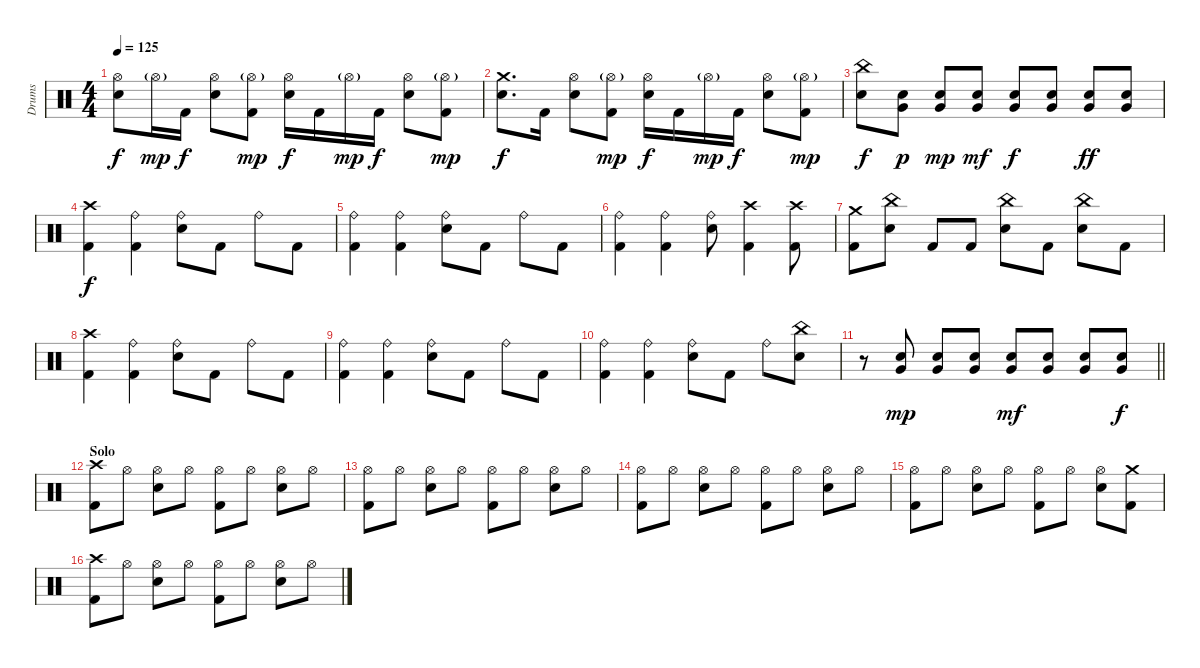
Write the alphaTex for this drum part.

\track ("Drums" "Drums") {instrument percussion}
\staff {score}
\articulation defaults
\ts (4 4)
\tempo 125
\clef neutral
\ks c
("Hi-Hat (open)" "Electric Snare (hit)").8{dy f} "Hi-Hat (open)"{g}.16{dy mp} "Kick (hit) 2".16{dy f} ("Hi-Hat (open)" "Electric Snare (hit)").8 ("Hi-Hat (open)"{g} "Kick (hit) 2").8{dy mp} ("Hi-Hat (open)" "Electric Snare (hit)").16{dy f} "Kick (hit) 2".16 "Hi-Hat (open)"{g}.16{dy mp} "Kick (hit) 2".16{dy f} ("Hi-Hat (open)" "Electric Snare (hit)").8 ("Hi-Hat (open)"{g} "Kick (hit) 2").8{dy mp} |
("Crash medium (hit)" "Electric Snare (hit)").8{d dy f} "Kick (hit) 2".16 ("Hi-Hat (open)" "Electric Snare (hit)").8 ("Hi-Hat (open)"{g} "Kick (hit) 2").8{dy mp} ("Hi-Hat (open)" "Electric Snare (hit)").16{dy f} "Kick (hit) 2".16 "Hi-Hat (open)"{g}.16{dy mp} "Kick (hit) 2".16{dy f} ("Hi-Hat (open)" "Electric Snare (hit)").8 ("Hi-Hat (open)"{g} "Kick (hit) 2").8{dy mp} |
("China (hit)" "Electric Snare (hit)").8{dy f} ("Very Low Tom (hit)" "Electric Snare (hit)").8{dy p} ("Very Low Tom (hit)" "Electric Snare (hit)").8{dy mp} ("Very Low Tom (hit)" "Electric Snare (hit)").8{dy mf} ("Very Low Tom (hit)" "Electric Snare (hit)").8{dy f} ("Very Low Tom (hit)" "Electric Snare (hit)").8 ("Very Low Tom (hit)" "Electric Snare (hit)").8{dy ff} ("Very Low Tom (hit)" "Electric Snare (hit)").8 |
("Crash high (hit)" "Kick (hit) 2").4{dy f} ("Ride (bell)" "Kick (hit) 2").4 ("Ride (bell)" "Electric Snare (hit)").8 "Kick (hit) 2".8 "Ride (bell)".8 "Kick (hit) 2".8 |
("Ride (bell)" "Kick (hit) 2").4 ("Ride (bell)" "Kick (hit) 2").4 ("Ride (bell)" "Electric Snare (hit)").8 "Kick (hit) 2".8 "Ride (bell)".8 "Kick (hit) 2".8 |
("Ride (bell)" "Kick (hit) 2").4 ("Ride (bell)" "Kick (hit) 2").4 ("Ride (bell)" "Electric Snare (hit)").8 ("Crash high (hit)" "Kick (hit) 2").4 ("Crash high (hit)" "Kick (hit) 2").8 |
("Crash medium (hit)" "Kick (hit) 2").8 ("China (hit)" "Electric Snare (hit)").8 "Kick (hit) 2".8 "Kick (hit) 2".8 ("China (hit)" "Electric Snare (hit)").8 "Kick (hit) 2".8 ("China (hit)" "Electric Snare (hit)").8 "Kick (hit) 2".8 |
("Crash high (hit)" "Kick (hit) 2").4 ("Ride (bell)" "Kick (hit) 2").4 ("Ride (bell)" "Electric Snare (hit)").8 "Kick (hit) 2".8 "Ride (bell)".8 "Kick (hit) 2".8 |
("Ride (bell)" "Kick (hit) 2").4 ("Ride (bell)" "Kick (hit) 2").4 ("Ride (bell)" "Electric Snare (hit)").8 "Kick (hit) 2".8 "Ride (bell)".8 "Kick (hit) 2".8 |
("Ride (bell)" "Kick (hit) 2").4 ("Ride (bell)" "Kick (hit) 2").4 ("Ride (bell)" "Electric Snare (hit)").8 "Kick (hit) 2".8 "Ride (bell)".8 ("China (hit)" "Electric Snare (hit)").8 |
\barLineRight lightlight
r.8 ("Very Low Tom (hit)" "Electric Snare (hit)").8{dy mp} ("Very Low Tom (hit)" "Electric Snare (hit)").8 ("Very Low Tom (hit)" "Electric Snare (hit)").8 ("Very Low Tom (hit)" "Electric Snare (hit)").8{dy mf} ("Very Low Tom (hit)" "Electric Snare (hit)").8 ("Very Low Tom (hit)" "Electric Snare (hit)").8 ("Very Low Tom (hit)" "Electric Snare (hit)").8{dy f} |
\section ("" "Solo")
("Crash high (hit)" "Kick (hit) 2").8 "Hi-Hat (open)".8 ("Hi-Hat (open)" "Electric Snare (hit)").8 "Hi-Hat (open)".8 ("Hi-Hat (open)" "Kick (hit) 2").8 "Hi-Hat (open)".8 ("Hi-Hat (open)" "Electric Snare (hit)").8 "Hi-Hat (open)".8 |
("Hi-Hat (open)" "Kick (hit) 2").8 "Hi-Hat (open)".8 ("Hi-Hat (open)" "Electric Snare (hit)").8 "Hi-Hat (open)".8 ("Hi-Hat (open)" "Kick (hit) 2").8 "Hi-Hat (open)".8 ("Hi-Hat (open)" "Electric Snare (hit)").8 "Hi-Hat (open)".8 |
("Hi-Hat (open)" "Kick (hit) 2").8 "Hi-Hat (open)".8 ("Hi-Hat (open)" "Electric Snare (hit)").8 "Hi-Hat (open)".8 ("Hi-Hat (open)" "Kick (hit) 2").8 "Hi-Hat (open)".8 ("Hi-Hat (open)" "Electric Snare (hit)").8 "Hi-Hat (open)".8 |
("Hi-Hat (open)" "Kick (hit) 2").8 "Hi-Hat (open)".8 ("Hi-Hat (open)" "Electric Snare (hit)").8 "Hi-Hat (open)".8 ("Hi-Hat (open)" "Kick (hit) 2").8 "Hi-Hat (open)".8 ("Hi-Hat (open)" "Electric Snare (hit)").8 ("Crash medium (hit)" "Kick (hit) 2").8 |
("Crash high (hit)" "Kick (hit) 2").8 "Hi-Hat (open)".8 ("Hi-Hat (open)" "Electric Snare (hit)").8 "Hi-Hat (open)".8 ("Hi-Hat (open)" "Kick (hit) 2").8 "Hi-Hat (open)".8 ("Hi-Hat (open)" "Electric Snare (hit)").8 "Hi-Hat (open)".8
